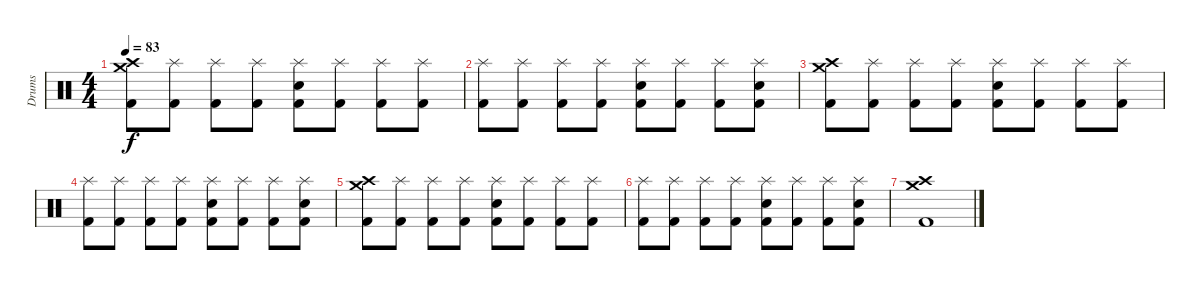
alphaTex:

\track ("Drums" "Drums") {instrument percussion}
\staff {score}
\articulation defaults
\ts (4 4)
\tempo 83
\clef neutral
\ks c
("Crash high (hit)" "Crash medium (hit)" "Kick (hit) 2").8{dy f} ("Splash (hit)" "Kick (hit) 2").8 ("Splash (hit)" "Kick (hit) 2").8 ("Splash (hit)" "Kick (hit) 2").8 ("Splash (hit)" "Snare (hit) 2" "Kick (hit) 2").8 ("Splash (hit)" "Kick (hit) 2").8 ("Splash (hit)" "Kick (hit) 2").8 ("Splash (hit)" "Kick (hit) 2").8 |
("Splash (hit)" "Kick (hit) 2").8 ("Splash (hit)" "Kick (hit) 2").8 ("Splash (hit)" "Kick (hit) 2").8 ("Splash (hit)" "Kick (hit) 2").8 ("Splash (hit)" "Snare (hit) 2" "Kick (hit) 2").8 ("Splash (hit)" "Kick (hit) 2").8 ("Splash (hit)" "Kick (hit) 2").8 ("Splash (hit)" "Snare (hit) 2" "Kick (hit) 2").8 |
("Crash high (hit)" "Crash medium (hit)" "Kick (hit) 2").8 ("Splash (hit)" "Kick (hit) 2").8 ("Splash (hit)" "Kick (hit) 2").8 ("Splash (hit)" "Kick (hit) 2").8 ("Splash (hit)" "Snare (hit) 2" "Kick (hit) 2").8 ("Splash (hit)" "Kick (hit) 2").8 ("Splash (hit)" "Kick (hit) 2").8 ("Splash (hit)" "Kick (hit) 2").8 |
("Splash (hit)" "Kick (hit) 2").8 ("Splash (hit)" "Kick (hit) 2").8 ("Splash (hit)" "Kick (hit) 2").8 ("Splash (hit)" "Kick (hit) 2").8 ("Splash (hit)" "Snare (hit) 2" "Kick (hit) 2").8 ("Splash (hit)" "Kick (hit) 2").8 ("Splash (hit)" "Kick (hit) 2").8 ("Splash (hit)" "Snare (hit) 2" "Kick (hit) 2").8 |
("Crash high (hit)" "Crash medium (hit)" "Kick (hit) 2").8 ("Splash (hit)" "Kick (hit) 2").8 ("Splash (hit)" "Kick (hit) 2").8 ("Splash (hit)" "Kick (hit) 2").8 ("Splash (hit)" "Snare (hit) 2" "Kick (hit) 2").8 ("Splash (hit)" "Kick (hit) 2").8 ("Splash (hit)" "Kick (hit) 2").8 ("Splash (hit)" "Kick (hit) 2").8 |
("Splash (hit)" "Kick (hit) 2").8 ("Splash (hit)" "Kick (hit) 2").8 ("Splash (hit)" "Kick (hit) 2").8 ("Splash (hit)" "Kick (hit) 2").8 ("Splash (hit)" "Snare (hit) 2" "Kick (hit) 2").8 ("Splash (hit)" "Kick (hit) 2").8 ("Splash (hit)" "Kick (hit) 2").8 ("Splash (hit)" "Snare (hit) 2" "Kick (hit) 2").8 |
("Crash high (hit)" "Crash medium (hit)" "Kick (hit) 2").1
